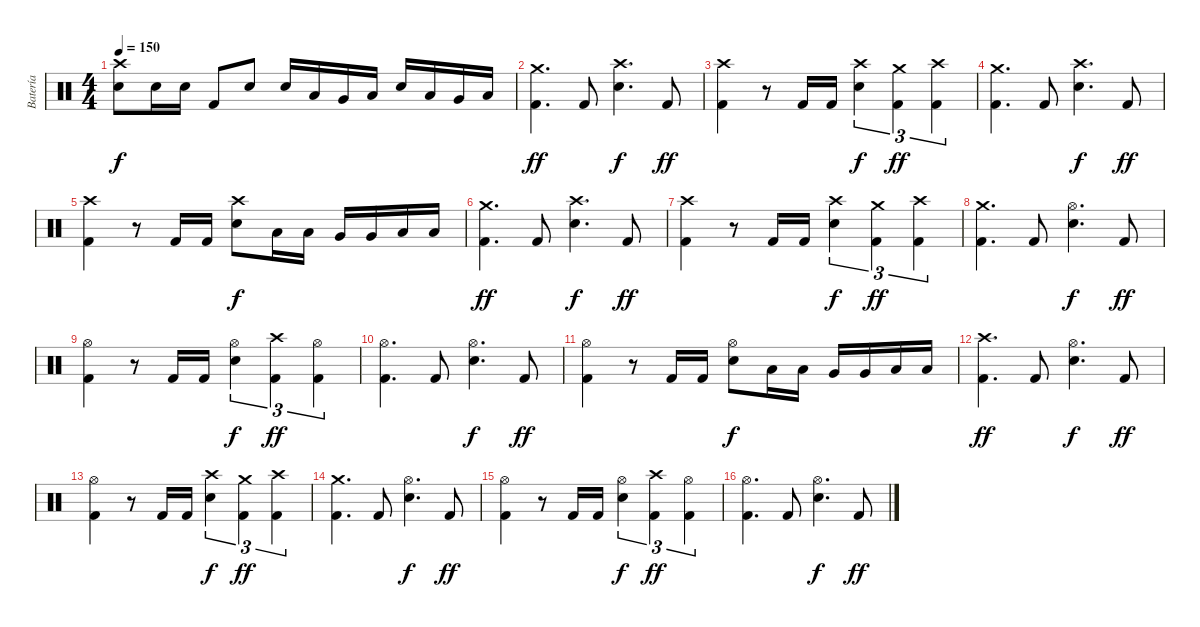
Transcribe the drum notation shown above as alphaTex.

\track ("Batería" "Batería") {instrument percussion}
\staff {score}
\articulation defaults
\ts (4 4)
\tempo 150
\clef neutral
\ks c
("Crash high (hit)" "Electric Snare (hit)").8{dy f} "Electric Snare (hit)".16 "Electric Snare (hit)".16 "Kick (hit) 2".8 "Electric Snare (hit)".8 "Electric Snare (hit)".16 "Low Tom (hit)".16 "Very Low Tom (hit)".16 "Low Floor Tom (hit)".16 "Electric Snare (hit)".16 "Low Tom (hit)".16 "Very Low Tom (hit)".16 "Low Floor Tom (hit)".16 |
("Crash medium (hit)" "Kick (hit) 2").4{d dy ff} "Kick (hit) 2".8 ("Crash high (hit)" "Electric Snare (hit)").4{d dy f} "Kick (hit) 2".8{dy ff} |
("Crash high (hit)" "Kick (hit) 2").4 r.8 "Kick (hit) 2".16 "Kick (hit) 2".16 ("Crash high (hit)" "Electric Snare (hit)").4{tu (3 2) dy f} ("Crash medium (hit)" "Kick (hit) 2").4{tu (3 2) dy ff} ("Crash high (hit)" "Kick (hit) 2").4{tu (3 2)} |
("Crash medium (hit)" "Kick (hit) 2").4{d} "Kick (hit) 2".8 ("Crash high (hit)" "Electric Snare (hit)").4{d dy f} "Kick (hit) 2".8{dy ff} |
("Crash high (hit)" "Kick (hit) 2").4 r.8 "Kick (hit) 2".16 "Kick (hit) 2".16 ("Crash high (hit)" "Electric Snare (hit)").8{dy f} "Low Tom (hit)".16 "Low Tom (hit)".16 "Very Low Tom (hit)".16 "Very Low Tom (hit)".16 "Low Floor Tom (hit)".16 "Low Floor Tom (hit)".16 |
("Crash medium (hit)" "Kick (hit) 2").4{d dy ff} "Kick (hit) 2".8 ("Crash high (hit)" "Electric Snare (hit)").4{d dy f} "Kick (hit) 2".8{dy ff} |
("Crash high (hit)" "Kick (hit) 2").4 r.8 "Kick (hit) 2".16 "Kick (hit) 2".16 ("Crash high (hit)" "Electric Snare (hit)").4{tu (3 2) dy f} ("Crash medium (hit)" "Kick (hit) 2").4{tu (3 2) dy ff} ("Crash high (hit)" "Kick (hit) 2").4{tu (3 2)} |
("Crash medium (hit)" "Kick (hit) 2").4{d} "Kick (hit) 2".8 ("Hi-Hat (open)" "Electric Snare (hit)").4{d dy f} "Kick (hit) 2".8{dy ff} |
("Hi-Hat (open)" "Kick (hit) 2").4 r.8 "Kick (hit) 2".16 "Kick (hit) 2".16 ("Hi-Hat (open)" "Electric Snare (hit)").4{tu (3 2) dy f} ("Crash high (hit)" "Kick (hit) 2").4{tu (3 2) dy ff} ("Hi-Hat (open)" "Kick (hit) 2").4{tu (3 2)} |
("Hi-Hat (open)" "Kick (hit) 2").4{d} "Kick (hit) 2".8 ("Hi-Hat (open)" "Electric Snare (hit)").4{d dy f} "Kick (hit) 2".8{dy ff} |
("Hi-Hat (open)" "Kick (hit) 2").4 r.8 "Kick (hit) 2".16 "Kick (hit) 2".16 ("Hi-Hat (open)" "Electric Snare (hit)").8{dy f} "Low Tom (hit)".16 "Low Tom (hit)".16 "Very Low Tom (hit)".16 "Very Low Tom (hit)".16 "Low Floor Tom (hit)".16 "Low Floor Tom (hit)".16 |
("Crash high (hit)" "Kick (hit) 2").4{d dy ff} "Kick (hit) 2".8 ("Hi-Hat (open)" "Electric Snare (hit)").4{d dy f} "Kick (hit) 2".8{dy ff} |
("Hi-Hat (open)" "Kick (hit) 2").4 r.8 "Kick (hit) 2".16 "Kick (hit) 2".16 ("Crash high (hit)" "Electric Snare (hit)").4{tu (3 2) dy f} ("Crash medium (hit)" "Kick (hit) 2").4{tu (3 2) dy ff} ("Crash high (hit)" "Kick (hit) 2").4{tu (3 2)} |
("Crash medium (hit)" "Kick (hit) 2").4{d} "Kick (hit) 2".8 ("Hi-Hat (open)" "Electric Snare (hit)").4{d dy f} "Kick (hit) 2".8{dy ff} |
("Hi-Hat (open)" "Kick (hit) 2").4 r.8 "Kick (hit) 2".16 "Kick (hit) 2".16 ("Hi-Hat (open)" "Electric Snare (hit)").4{tu (3 2) dy f} ("Crash high (hit)" "Kick (hit) 2").4{tu (3 2) dy ff} ("Hi-Hat (open)" "Kick (hit) 2").4{tu (3 2)} |
("Hi-Hat (open)" "Kick (hit) 2").4{d} "Kick (hit) 2".8 ("Hi-Hat (open)" "Electric Snare (hit)").4{d dy f} "Kick (hit) 2".8{dy ff}
